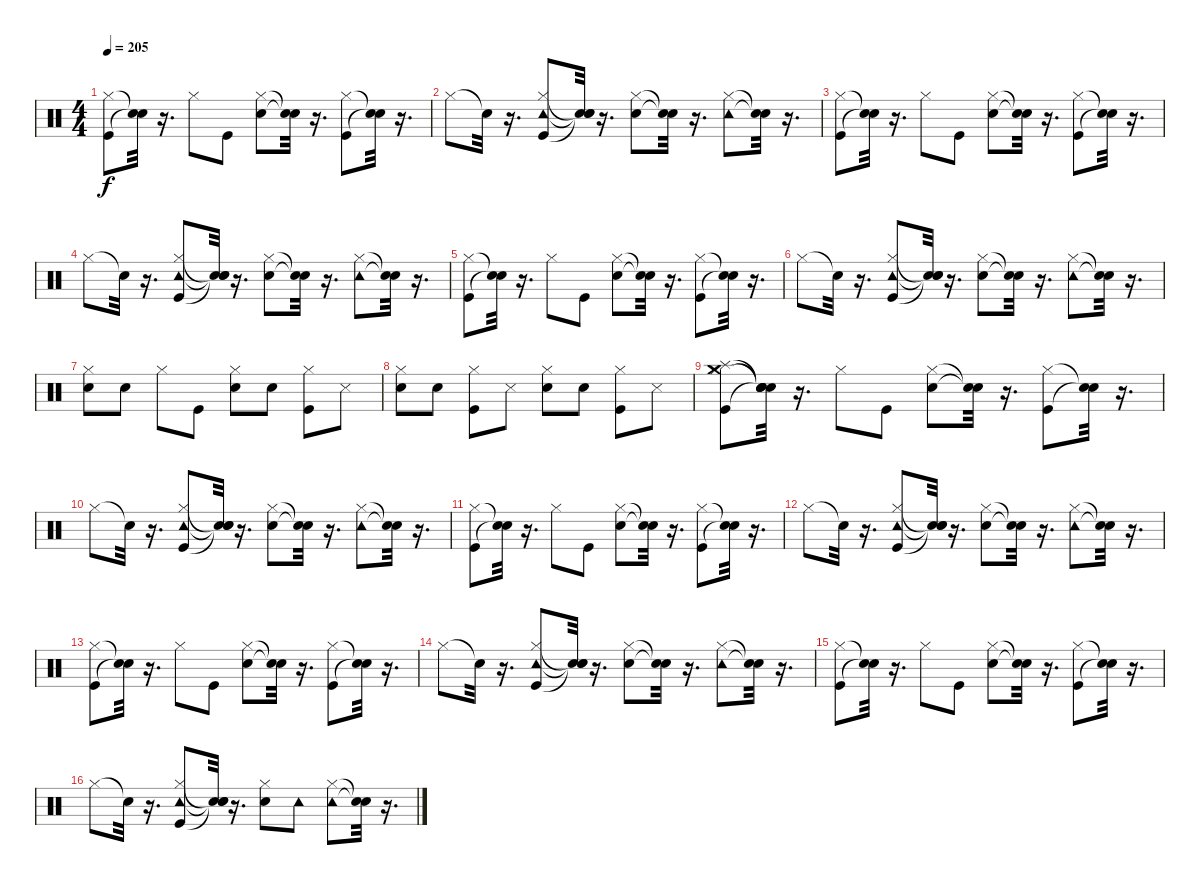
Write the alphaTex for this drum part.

\track "" {instrument percussion}
\staff {score}
\articulation defaults
\ts (4 4)
\tempo 205
\clef neutral
\ks c
("Kick (hit)" "Hi-Hat (closed)").8{dy f} ("Snare (hit)"{t} "Snare (hit)"{t}).32 r.16{d} "Hi-Hat (closed)".8 "Kick (hit)".8 ("Hi-Hat (closed)" "Electric Snare (hit)").8 ("Snare (hit)"{t} "Snare (hit)"{t}).32 r.16{d} ("Hi-Hat (closed)" "Kick (hit)").8 ("Snare (hit)"{t} "Snare (hit)"{t}).32 r.16{d} |
"Hi-Hat (closed)".8 "Snare (hit)"{t}.32 r.16{d} ("Hi-Hat (closed)" "Kick (hit)" "Tambourine (hit)").8 ("Snare (hit)"{t} "Snare (hit)"{t} "Snare (hit)"{t}).32 r.16{d} ("Hi-Hat (closed)" "Electric Snare (hit)").8 ("Snare (hit)"{t} "Snare (hit)"{t}).32 r.16{d} ("Hi-Hat (closed)" "Tambourine (hit)").8 ("Snare (hit)"{t} "Snare (hit)"{t}).32 r.16{d} |
("Kick (hit)" "Hi-Hat (closed)").8 ("Snare (hit)"{t} "Snare (hit)"{t}).32 r.16{d} "Hi-Hat (closed)".8 "Kick (hit)".8 ("Hi-Hat (closed)" "Electric Snare (hit)").8 ("Snare (hit)"{t} "Snare (hit)"{t}).32 r.16{d} ("Hi-Hat (closed)" "Kick (hit)").8 ("Snare (hit)"{t} "Snare (hit)"{t}).32 r.16{d} |
"Hi-Hat (closed)".8 "Snare (hit)"{t}.32 r.16{d} ("Hi-Hat (closed)" "Kick (hit)" "Tambourine (hit)").8 ("Snare (hit)"{t} "Snare (hit)"{t} "Snare (hit)"{t}).32 r.16{d} ("Hi-Hat (closed)" "Electric Snare (hit)").8 ("Snare (hit)"{t} "Snare (hit)"{t}).32 r.16{d} ("Hi-Hat (closed)" "Tambourine (hit)").8 ("Snare (hit)"{t} "Snare (hit)"{t}).32 r.16{d} |
("Kick (hit)" "Hi-Hat (closed)").8 ("Snare (hit)"{t} "Snare (hit)"{t}).32 r.16{d} "Hi-Hat (closed)".8 "Kick (hit)".8 ("Hi-Hat (closed)" "Electric Snare (hit)").8 ("Snare (hit)"{t} "Snare (hit)"{t}).32 r.16{d} ("Hi-Hat (closed)" "Kick (hit)").8 ("Snare (hit)"{t} "Snare (hit)"{t}).32 r.16{d} |
"Hi-Hat (closed)".8 "Snare (hit)"{t}.32 r.16{d} ("Hi-Hat (closed)" "Kick (hit)" "Tambourine (hit)").8 ("Snare (hit)"{t} "Snare (hit)"{t} "Snare (hit)"{t}).32 r.16{d} ("Hi-Hat (closed)" "Electric Snare (hit)").8 ("Snare (hit)"{t} "Snare (hit)"{t}).32 r.16{d} ("Hi-Hat (closed)" "Tambourine (hit)").8 ("Snare (hit)"{t} "Snare (hit)"{t}).32 r.16{d} |
("Hi-Hat (closed)" "Snare (hit) 2").8 "Electric Snare (hit)".8 "Hi-Hat (closed)".8 "Kick (hit)".8 ("Snare (hit) 2" "Hi-Hat (closed)").8 "Electric Snare (hit)".8 ("Kick (hit)" "Hi-Hat (closed)").8 "Metronome (hit)".8 |
("Snare (hit) 2" "Hi-Hat (closed)").8 "Electric Snare (hit)".8 ("Kick (hit)" "Hi-Hat (closed)").8 "Metronome (hit)".8 ("Snare (hit) 2" "Hi-Hat (closed)").8 "Electric Snare (hit)".8 ("Hi-Hat (closed)" "Kick (hit)").8 "Metronome (hit)".8 |
("Kick (hit)" "Hi-Hat (closed)" "Splash (hit)" "Crash medium (hit)").8 ("Snare (hit)"{t} "Snare (hit)"{t} "Snare (hit)"{t} "Snare (hit)"{t}).32 r.16{d} "Hi-Hat (closed)".8 "Kick (hit)".8 ("Hi-Hat (closed)" "Electric Snare (hit)").8 ("Snare (hit)"{t} "Snare (hit)"{t}).32 r.16{d} ("Hi-Hat (closed)" "Kick (hit)").8 ("Snare (hit)"{t} "Snare (hit)"{t}).32 r.16{d} |
"Hi-Hat (closed)".8 "Snare (hit)"{t}.32 r.16{d} ("Hi-Hat (closed)" "Kick (hit)" "Tambourine (hit)").8 ("Snare (hit)"{t} "Snare (hit)"{t} "Snare (hit)"{t}).32 r.16{d} ("Hi-Hat (closed)" "Electric Snare (hit)").8 ("Snare (hit)"{t} "Snare (hit)"{t}).32 r.16{d} ("Hi-Hat (closed)" "Tambourine (hit)").8 ("Snare (hit)"{t} "Snare (hit)"{t}).32 r.16{d} |
("Kick (hit)" "Hi-Hat (closed)").8 ("Snare (hit)"{t} "Snare (hit)"{t}).32 r.16{d} "Hi-Hat (closed)".8 "Kick (hit)".8 ("Hi-Hat (closed)" "Electric Snare (hit)").8 ("Snare (hit)"{t} "Snare (hit)"{t}).32 r.16{d} ("Hi-Hat (closed)" "Kick (hit)").8 ("Snare (hit)"{t} "Snare (hit)"{t}).32 r.16{d} |
"Hi-Hat (closed)".8 "Snare (hit)"{t}.32 r.16{d} ("Hi-Hat (closed)" "Kick (hit)" "Tambourine (hit)").8 ("Snare (hit)"{t} "Snare (hit)"{t} "Snare (hit)"{t}).32 r.16{d} ("Hi-Hat (closed)" "Electric Snare (hit)").8 ("Snare (hit)"{t} "Snare (hit)"{t}).32 r.16{d} ("Hi-Hat (closed)" "Tambourine (hit)").8 ("Snare (hit)"{t} "Snare (hit)"{t}).32 r.16{d} |
("Kick (hit)" "Hi-Hat (closed)").8 ("Snare (hit)"{t} "Snare (hit)"{t}).32 r.16{d} "Hi-Hat (closed)".8 "Kick (hit)".8 ("Hi-Hat (closed)" "Electric Snare (hit)").8 ("Snare (hit)"{t} "Snare (hit)"{t}).32 r.16{d} ("Hi-Hat (closed)" "Kick (hit)").8 ("Snare (hit)"{t} "Snare (hit)"{t}).32 r.16{d} |
"Hi-Hat (closed)".8 "Snare (hit)"{t}.32 r.16{d} ("Hi-Hat (closed)" "Kick (hit)" "Tambourine (hit)").8 ("Snare (hit)"{t} "Snare (hit)"{t} "Snare (hit)"{t}).32 r.16{d} ("Hi-Hat (closed)" "Electric Snare (hit)").8 ("Snare (hit)"{t} "Snare (hit)"{t}).32 r.16{d} ("Hi-Hat (closed)" "Tambourine (hit)").8 ("Snare (hit)"{t} "Snare (hit)"{t}).32 r.16{d} |
("Kick (hit)" "Hi-Hat (closed)").8 ("Snare (hit)"{t} "Snare (hit)"{t}).32 r.16{d} "Hi-Hat (closed)".8 "Kick (hit)".8 ("Hi-Hat (closed)" "Electric Snare (hit)").8 ("Snare (hit)"{t} "Snare (hit)"{t}).32 r.16{d} ("Hi-Hat (closed)" "Kick (hit)").8 ("Snare (hit)"{t} "Snare (hit)"{t}).32 r.16{d} |
"Hi-Hat (closed)".8 "Snare (hit)"{t}.32 r.16{d} ("Hi-Hat (closed)" "Kick (hit)" "Tambourine (hit)").8 ("Snare (hit)"{t} "Snare (hit)"{t} "Snare (hit)"{t}).32 r.16{d} ("Hi-Hat (closed)" "Electric Snare (hit)").8 "Tambourine (hit)".8 ("Hi-Hat (closed)" "Tambourine (hit)").8 ("Snare (hit)"{t} "Snare (hit)"{t}).32 r.16{d}
